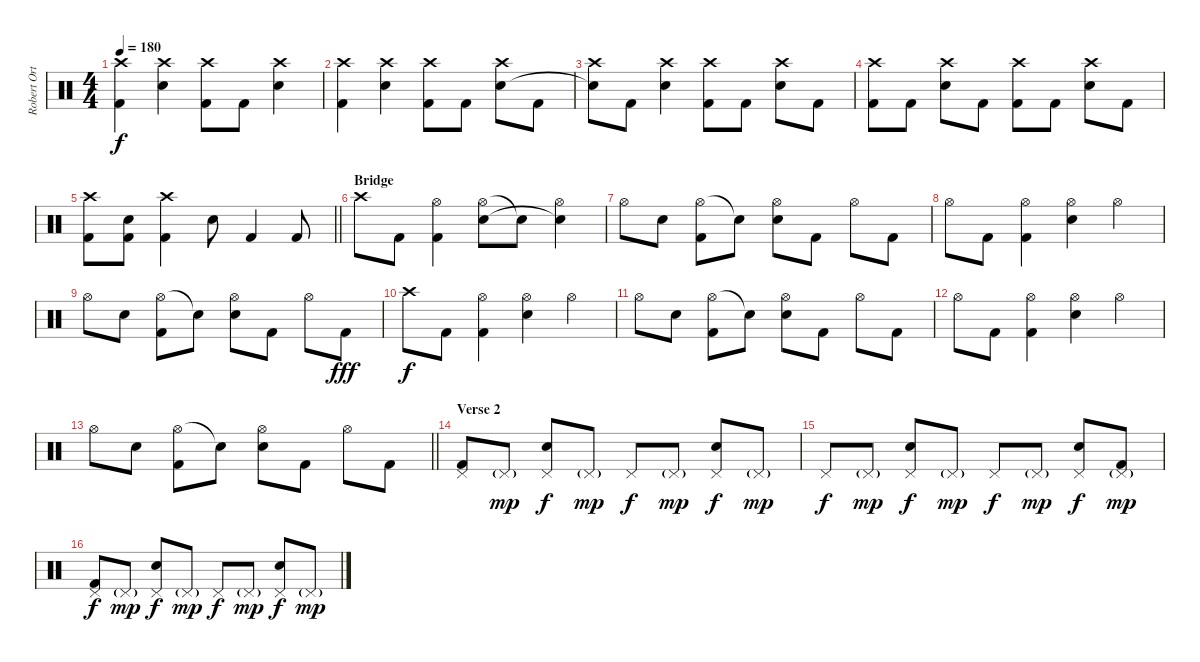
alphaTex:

\track ("Robert Ortiz [Drums]" "Robert Ort") {instrument percussion}
\staff {score}
\articulation defaults
\ts (4 4)
\tempo 180
\clef neutral
\ks c
("Crash high (hit)" "Kick (hit) 2").4{dy f} ("Crash high (hit)" "Electric Snare (hit)").4 ("Crash high (hit)" "Kick (hit) 2").8 "Kick (hit) 2".8 ("Crash high (hit)" "Electric Snare (hit)").4 |
("Crash high (hit)" "Kick (hit) 2").4 ("Crash high (hit)" "Electric Snare (hit)").4 ("Crash high (hit)" "Kick (hit) 2").8 "Kick (hit) 2".8 ("Crash high (hit)" "Electric Snare (hit)").8 "Kick (hit) 2".8 |
("Crash high (hit)" "Snare (hit)"{t}).8 "Kick (hit) 2".8 ("Crash high (hit)" "Electric Snare (hit)").4 ("Crash high (hit)" "Kick (hit) 2").8 "Kick (hit) 2".8 ("Crash high (hit)" "Electric Snare (hit)").8 "Kick (hit) 2".8 |
("Crash high (hit)" "Kick (hit) 2").8 "Kick (hit) 2".8 ("Crash high (hit)" "Electric Snare (hit)").8 "Kick (hit) 2".8 ("Crash high (hit)" "Kick (hit) 2").8 "Kick (hit) 2".8 ("Crash high (hit)" "Electric Snare (hit)").8 "Kick (hit) 2".8 |
\barLineRight lightlight
("Crash high (hit)" "Kick (hit) 2").8 ("Electric Snare (hit)" "Kick (hit) 2").8 ("Crash high (hit)" "Kick (hit) 2").4 "Electric Snare (hit)".8 "Kick (hit) 2".4 "Kick (hit) 2".8 |
\section ("" "Bridge")
"Crash high (hit)".8 "Kick (hit) 2".8 ("Hi-Hat (open)" "Kick (hit) 2").4 ("Hi-Hat (open)" "Electric Snare (hit)").8 "Snare (hit)"{t}.8 ("Hi-Hat (open)" "Snare (hit)"{t}).4 |
"Hi-Hat (open)".8 "Electric Snare (hit)".8 ("Hi-Hat (open)" "Kick (hit) 2").8 "Snare (hit)"{t}.8 ("Hi-Hat (open)" "Electric Snare (hit)").8 "Kick (hit) 2".8 "Hi-Hat (open)".8 "Kick (hit) 2".8 |
"Hi-Hat (open)".8 "Kick (hit) 2".8 ("Hi-Hat (open)" "Kick (hit) 2").4 ("Hi-Hat (open)" "Electric Snare (hit)").4 "Hi-Hat (open)".4 |
"Hi-Hat (open)".8 "Electric Snare (hit)".8 ("Hi-Hat (open)" "Kick (hit) 2").8 "Snare (hit)"{t}.8 ("Hi-Hat (open)" "Electric Snare (hit)").8 "Kick (hit) 2".8 "Hi-Hat (open)".8 "Kick (hit) 2".8{dy fff} |
"Crash high (hit)".8{dy f} "Kick (hit) 2".8 ("Hi-Hat (open)" "Kick (hit) 2").4 ("Hi-Hat (open)" "Electric Snare (hit)").4 "Hi-Hat (open)".4 |
"Hi-Hat (open)".8 "Electric Snare (hit)".8 ("Hi-Hat (open)" "Kick (hit) 2").8 "Snare (hit)"{t}.8 ("Hi-Hat (open)" "Electric Snare (hit)").8 "Kick (hit) 2".8 "Hi-Hat (open)".8 "Kick (hit) 2".8 |
"Hi-Hat (open)".8 "Kick (hit) 2".8 ("Hi-Hat (open)" "Kick (hit) 2").4 ("Hi-Hat (open)" "Electric Snare (hit)").4 "Hi-Hat (open)".4 |
\barLineRight lightlight "Hi-Hat (open)".8 "Electric Snare (hit)".8
("Hi-Hat (open)" "Kick (hit) 2").8 "Snare (hit)"{t}.8 ("Hi-Hat (open)" "Electric Snare (hit)").8 "Kick (hit) 2".8 "Hi-Hat (open)".8 "Kick (hit) 2".8 |
\section ("" "Verse 2")
("Pedal Hi-Hat (hit)" "Kick (hit) 2").8 "Pedal Hi-Hat (hit)"{g}.8{dy mp} ("Pedal Hi-Hat (hit)" "Electric Snare (hit)").8{dy f} "Pedal Hi-Hat (hit)"{g}.8{dy mp} "Pedal Hi-Hat (hit)".8{dy f} "Pedal Hi-Hat (hit)"{g}.8{dy mp} ("Pedal Hi-Hat (hit)" "Electric Snare (hit)").8{dy f} "Pedal Hi-Hat (hit)"{g}.8{dy mp} |
"Pedal Hi-Hat (hit)".8{dy f} "Pedal Hi-Hat (hit)"{g}.8{dy mp} ("Pedal Hi-Hat (hit)" "Electric Snare (hit)").8{dy f} "Pedal Hi-Hat (hit)"{g}.8{dy mp} "Pedal Hi-Hat (hit)".8{dy f} "Pedal Hi-Hat (hit)"{g}.8{dy mp} ("Pedal Hi-Hat (hit)" "Electric Snare (hit)").8{dy f} ("Pedal Hi-Hat (hit)"{g} "Kick (hit) 2").8{dy mp} |
("Pedal Hi-Hat (hit)" "Kick (hit) 2").8{dy f} "Pedal Hi-Hat (hit)"{g}.8{dy mp} ("Pedal Hi-Hat (hit)" "Electric Snare (hit)").8{dy f} "Pedal Hi-Hat (hit)"{g}.8{dy mp} "Pedal Hi-Hat (hit)".8{dy f} "Pedal Hi-Hat (hit)"{g}.8{dy mp} ("Pedal Hi-Hat (hit)" "Electric Snare (hit)").8{dy f} "Pedal Hi-Hat (hit)"{g}.8{dy mp}
